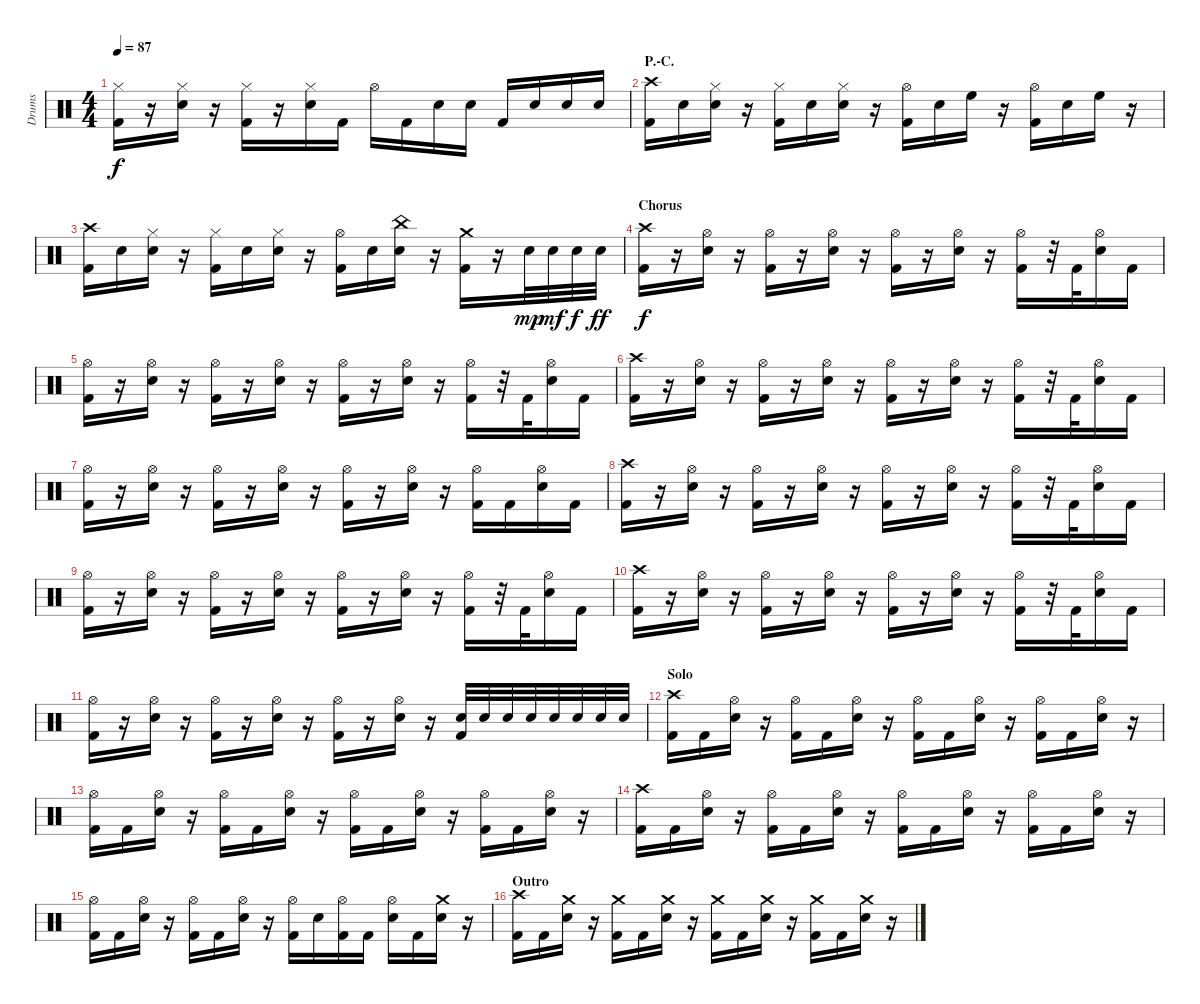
\track ("Drums" "Drums") {instrument percussion}
\staff {score}
\articulation defaults
\ts (4 4)
\tempo 87
\clef neutral
\ks c
("Hi-Hat (closed)" "Kick (hit) 2").16{dy f} r.16 ("Hi-Hat (closed)" "Electric Snare (hit)").16 r.16 ("Hi-Hat (closed)" "Kick (hit) 2").16 r.16 ("Hi-Hat (closed)" "Electric Snare (hit)").16 "Kick (hit) 2".16 "Hi-Hat (open)".16 "Kick (hit) 2".16 "Electric Snare (hit)".16 "Electric Snare (hit)".16 "Kick (hit) 2".16 "Electric Snare (hit)".16 "Electric Snare (hit)".16 "Electric Snare (hit)".16 |
\section ("" "P.-C.")
("Crash high (hit)" "Kick (hit) 2").16 "Electric Snare (hit)".16 ("Hi-Hat (closed)" "Electric Snare (hit)").16 r.16 ("Hi-Hat (closed)" "Kick (hit) 2").16 "Electric Snare (hit)".16 ("Hi-Hat (closed)" "Electric Snare (hit)").16 r.16 ("Hi-Hat (open)" "Kick (hit) 2").16 "Electric Snare (hit)".16 "High Floor Tom (hit)".16 r.16 ("Hi-Hat (open)" "Kick (hit) 2").16 "Electric Snare (hit)".16 "High Floor Tom (hit)".16 r.16 |
("Crash high (hit)" "Kick (hit) 2").16 "Electric Snare (hit)".16 ("Hi-Hat (closed)" "Electric Snare (hit)").16 r.16 ("Hi-Hat (closed)" "Kick (hit) 2").16 "Electric Snare (hit)".16 ("Hi-Hat (closed)" "Electric Snare (hit)").16 r.16 ("Hi-Hat (open)" "Kick (hit) 2").16 "Electric Snare (hit)".16 ("China (hit)" "Electric Snare (hit)").16 r.16 ("Crash medium (hit)" "Kick (hit) 2").16 r.16 "Electric Snare (hit)".32{dy mp} "Electric Snare (hit)".32{dy mf} "Electric Snare (hit)".32{dy f} "Electric Snare (hit)".32{dy ff} |
\section ("" "Chorus")
("Crash high (hit)" "Kick (hit) 2").16{dy f} r.16 ("Hi-Hat (open)" "Electric Snare (hit)").16 r.16 ("Hi-Hat (open)" "Kick (hit) 2").16 r.16 ("Hi-Hat (open)" "Electric Snare (hit)").16 r.16 ("Hi-Hat (open)" "Kick (hit) 2").16 r.16 ("Hi-Hat (open)" "Electric Snare (hit)").16 r.16 ("Hi-Hat (open)" "Kick (hit) 2").16 r.32 "Kick (hit) 2".32 ("Hi-Hat (open)" "Electric Snare (hit)").16 "Kick (hit) 2".16 |
("Hi-Hat (open)" "Kick (hit) 2").16 r.16 ("Hi-Hat (open)" "Electric Snare (hit)").16 r.16 ("Hi-Hat (open)" "Kick (hit) 2").16 r.16 ("Hi-Hat (open)" "Electric Snare (hit)").16 r.16 ("Hi-Hat (open)" "Kick (hit) 2").16 r.16 ("Hi-Hat (open)" "Electric Snare (hit)").16 r.16 ("Hi-Hat (open)" "Kick (hit) 2").16 r.32 "Kick (hit) 2".32 ("Hi-Hat (open)" "Electric Snare (hit)").16 "Kick (hit) 2".16 |
("Crash high (hit)" "Kick (hit) 2").16 r.16 ("Hi-Hat (open)" "Electric Snare (hit)").16 r.16 ("Hi-Hat (open)" "Kick (hit) 2").16 r.16 ("Hi-Hat (open)" "Electric Snare (hit)").16 r.16 ("Hi-Hat (open)" "Kick (hit) 2").16 r.16 ("Hi-Hat (open)" "Electric Snare (hit)").16 r.16 ("Hi-Hat (open)" "Kick (hit) 2").16 r.32 "Kick (hit) 2".32 ("Hi-Hat (open)" "Electric Snare (hit)").16 "Kick (hit) 2".16 |
("Hi-Hat (open)" "Kick (hit) 2").16 r.16 ("Hi-Hat (open)" "Electric Snare (hit)").16 r.16 ("Hi-Hat (open)" "Kick (hit) 2").16 r.16 ("Hi-Hat (open)" "Electric Snare (hit)").16 r.16 ("Hi-Hat (open)" "Kick (hit) 2").16 r.16 ("Hi-Hat (open)" "Electric Snare (hit)").16 r.16 ("Hi-Hat (open)" "Kick (hit) 2").16 "Kick (hit) 2".16 ("Hi-Hat (open)" "Electric Snare (hit)").16 "Kick (hit) 2".16 |
("Crash high (hit)" "Kick (hit) 2").16 r.16 ("Hi-Hat (open)" "Electric Snare (hit)").16 r.16 ("Hi-Hat (open)" "Kick (hit) 2").16 r.16 ("Hi-Hat (open)" "Electric Snare (hit)").16 r.16 ("Hi-Hat (open)" "Kick (hit) 2").16 r.16 ("Hi-Hat (open)" "Electric Snare (hit)").16 r.16 ("Hi-Hat (open)" "Kick (hit) 2").16 r.32 "Kick (hit) 2".32 ("Hi-Hat (open)" "Electric Snare (hit)").16 "Kick (hit) 2".16 |
("Hi-Hat (open)" "Kick (hit) 2").16 r.16 ("Hi-Hat (open)" "Electric Snare (hit)").16 r.16 ("Hi-Hat (open)" "Kick (hit) 2").16 r.16 ("Hi-Hat (open)" "Electric Snare (hit)").16 r.16 ("Hi-Hat (open)" "Kick (hit) 2").16 r.16 ("Hi-Hat (open)" "Electric Snare (hit)").16 r.16 ("Hi-Hat (open)" "Kick (hit) 2").16 r.32 "Kick (hit) 2".32 ("Hi-Hat (open)" "Electric Snare (hit)").16 "Kick (hit) 2".16 |
("Crash high (hit)" "Kick (hit) 2").16 r.16 ("Hi-Hat (open)" "Electric Snare (hit)").16 r.16 ("Hi-Hat (open)" "Kick (hit) 2").16 r.16 ("Hi-Hat (open)" "Electric Snare (hit)").16 r.16 ("Hi-Hat (open)" "Kick (hit) 2").16 r.16 ("Hi-Hat (open)" "Electric Snare (hit)").16 r.16 ("Hi-Hat (open)" "Kick (hit) 2").16 r.32 "Kick (hit) 2".32 ("Hi-Hat (open)" "Electric Snare (hit)").16 "Kick (hit) 2".16 |
("Hi-Hat (open)" "Kick (hit) 2").16 r.16 ("Hi-Hat (open)" "Electric Snare (hit)").16 r.16 ("Hi-Hat (open)" "Kick (hit) 2").16 r.16 ("Hi-Hat (open)" "Electric Snare (hit)").16 r.16 ("Hi-Hat (open)" "Kick (hit) 2").16 r.16 ("Hi-Hat (open)" "Electric Snare (hit)").16 r.16 ("Electric Snare (hit)" "Kick (hit) 2").32 "Electric Snare (hit)".32 "Electric Snare (hit)".32 "Electric Snare (hit)".32 "Electric Snare (hit)".32 "Electric Snare (hit)".32 "Electric Snare (hit)".32 "Electric Snare (hit)".32 |
\section ("" "Solo")
("Crash high (hit)" "Kick (hit) 2").16 "Kick (hit) 2".16 ("Hi-Hat (open)" "Electric Snare (hit)").16 r.16 ("Hi-Hat (open)" "Kick (hit) 2").16 "Kick (hit) 2".16 ("Hi-Hat (open)" "Electric Snare (hit)").16 r.16 ("Hi-Hat (open)" "Kick (hit) 2").16 "Kick (hit) 2".16 ("Hi-Hat (open)" "Electric Snare (hit)").16 r.16 ("Hi-Hat (open)" "Kick (hit) 2").16 "Kick (hit) 2".16 ("Hi-Hat (open)" "Electric Snare (hit)").16 r.16 |
("Hi-Hat (open)" "Kick (hit) 2").16 "Kick (hit) 2".16 ("Hi-Hat (open)" "Electric Snare (hit)").16 r.16 ("Hi-Hat (open)" "Kick (hit) 2").16 "Kick (hit) 2".16 ("Hi-Hat (open)" "Electric Snare (hit)").16 r.16 ("Hi-Hat (open)" "Kick (hit) 2").16 "Kick (hit) 2".16 ("Hi-Hat (open)" "Electric Snare (hit)").16 r.16 ("Hi-Hat (open)" "Kick (hit) 2").16 "Kick (hit) 2".16 ("Hi-Hat (open)" "Electric Snare (hit)").16 r.16 |
("Crash high (hit)" "Kick (hit) 2").16 "Kick (hit) 2".16 ("Hi-Hat (open)" "Electric Snare (hit)").16 r.16 ("Hi-Hat (open)" "Kick (hit) 2").16 "Kick (hit) 2".16 ("Hi-Hat (open)" "Electric Snare (hit)").16 r.16 ("Hi-Hat (open)" "Kick (hit) 2").16 "Kick (hit) 2".16 ("Hi-Hat (open)" "Electric Snare (hit)").16 r.16 ("Hi-Hat (open)" "Kick (hit) 2").16 "Kick (hit) 2".16 ("Hi-Hat (open)" "Electric Snare (hit)").16 r.16 |
("Hi-Hat (open)" "Kick (hit) 2").16 "Kick (hit) 2".16 ("Hi-Hat (open)" "Electric Snare (hit)").16 r.16 ("Hi-Hat (open)" "Kick (hit) 2").16 "Kick (hit) 2".16 ("Hi-Hat (open)" "Electric Snare (hit)").16 r.16 ("Hi-Hat (open)" "Kick (hit) 2").16 "Electric Snare (hit)".16 ("Hi-Hat (open)" "Kick (hit) 2").16 "Kick (hit) 2".16 ("Hi-Hat (open)" "Electric Snare (hit)").16 "Kick (hit) 2".16 ("Crash medium (hit)" "Electric Snare (hit)").16 r.16 |
\section ("" "Outro")
("Crash high (hit)" "Kick (hit) 2").16 "Kick (hit) 2".16 ("Crash medium (hit)" "Electric Snare (hit)").16 r.16 ("Crash medium (hit)" "Kick (hit) 2").16 "Kick (hit) 2".16 ("Crash medium (hit)" "Electric Snare (hit)").16 r.16 ("Crash medium (hit)" "Kick (hit) 2").16 "Kick (hit) 2".16 ("Crash medium (hit)" "Electric Snare (hit)").16 r.16 ("Crash medium (hit)" "Kick (hit) 2").16 "Kick (hit) 2".16 ("Crash medium (hit)" "Electric Snare (hit)").16 r.16
